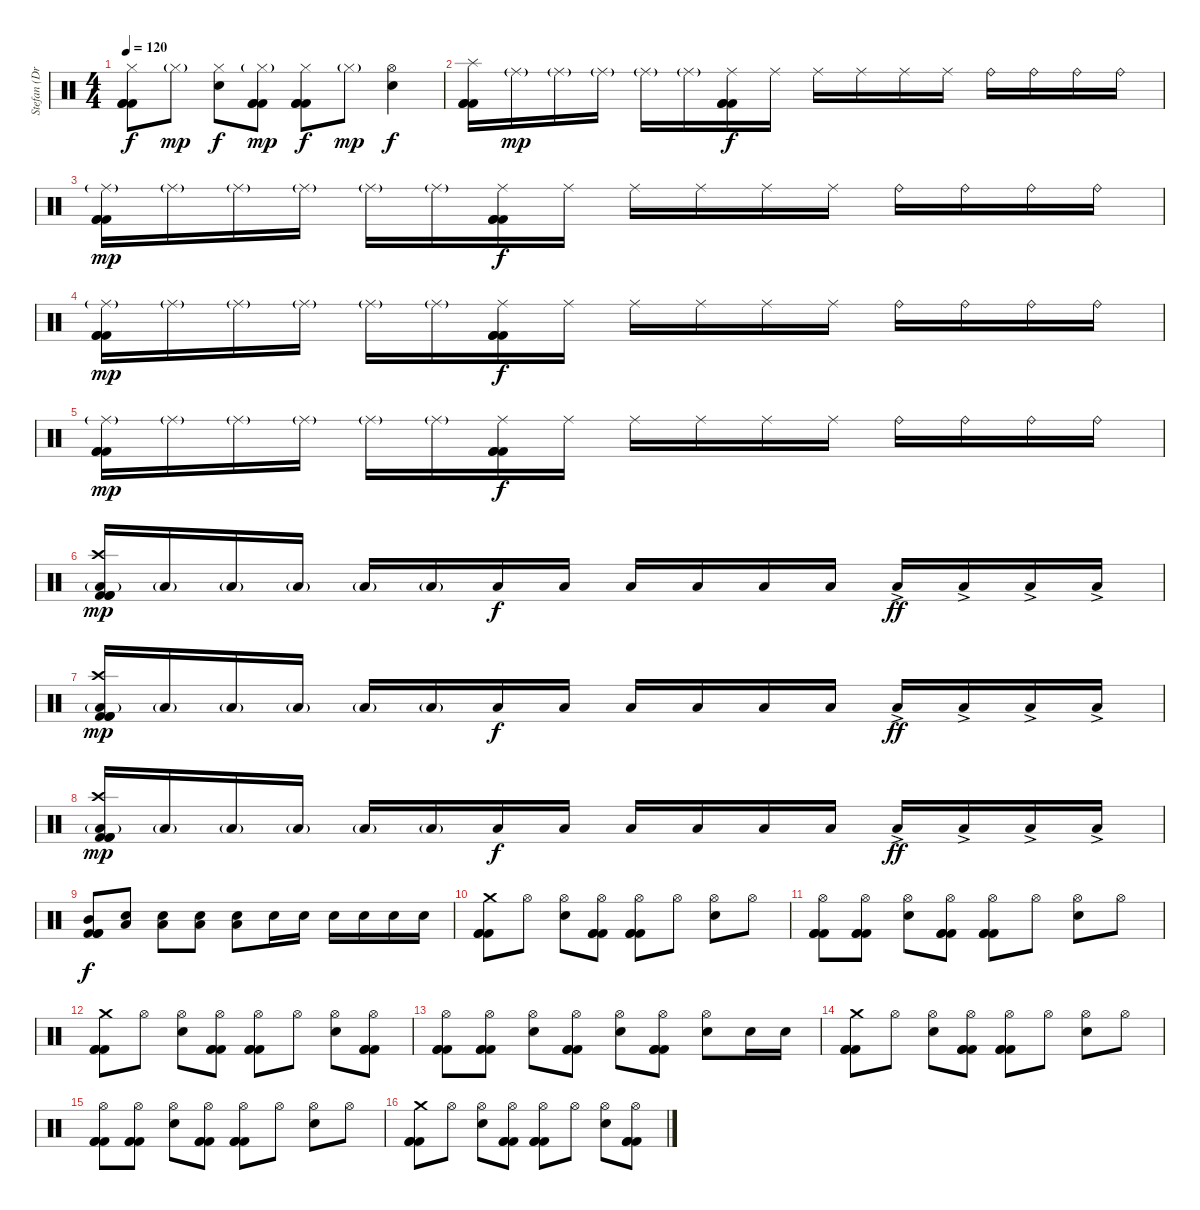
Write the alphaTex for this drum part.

\track ("Stefan (Drums)" "Stefan (Dr") {instrument percussion}
\staff {score}
\articulation defaults
\ts (4 4)
\tempo 120
\clef neutral
\ks c
("Hi-Hat (closed)" "Kick (hit) 2" "Kick (hit) 2" "Kick (hit) 2").8{dy f} "Hi-Hat (closed)"{g}.8{dy mp} ("Hi-Hat (closed)" "Snare (hit) 2").8{dy f} ("Hi-Hat (closed)"{g} "Kick (hit) 2" "Kick (hit) 2" "Kick (hit) 2").8{dy mp} ("Hi-Hat (closed)" "Kick (hit) 2" "Kick (hit) 2" "Kick (hit) 2").8{dy f} "Hi-Hat (closed)"{g}.8{dy mp} ("Hi-Hat (open)" "Snare (hit) 2").4{dy f} |
("Splash (hit)" "Kick (hit) 2" "Kick (hit) 2" "Kick (hit) 2").16 "Ride (middle)"{g}.16{dy mp} "Ride (middle)"{g}.16 "Ride (middle)"{g}.16 "Ride (middle)"{g}.16 "Ride (middle)"{g}.16 ("Ride (middle)" "Kick (hit) 2" "Kick (hit) 2" "Kick (hit) 2").16{dy f} "Ride (middle)".16 "Ride (middle)".16 "Ride (middle)".16 "Ride (middle)".16 "Ride (middle)".16 "Ride (bell)".16 "Ride (bell)".16 "Ride (bell)".16 "Ride (bell)".16 |
("Ride (middle)"{g} "Kick (hit) 2" "Kick (hit) 2" "Kick (hit) 2").16{dy mp} "Ride (middle)"{g}.16 "Ride (middle)"{g}.16 "Ride (middle)"{g}.16 "Ride (middle)"{g}.16 "Ride (middle)"{g}.16 ("Ride (middle)" "Kick (hit) 2" "Kick (hit) 2" "Kick (hit) 2").16{dy f} "Ride (middle)".16 "Ride (middle)".16 "Ride (middle)".16 "Ride (middle)".16 "Ride (middle)".16 "Ride (bell)".16 "Ride (bell)".16 "Ride (bell)".16 "Ride (bell)".16 |
("Ride (middle)"{g} "Kick (hit) 2" "Kick (hit) 2" "Kick (hit) 2").16{dy mp} "Ride (middle)"{g}.16 "Ride (middle)"{g}.16 "Ride (middle)"{g}.16 "Ride (middle)"{g}.16 "Ride (middle)"{g}.16 ("Ride (middle)" "Kick (hit) 2" "Kick (hit) 2" "Kick (hit) 2").16{dy f} "Ride (middle)".16 "Ride (middle)".16 "Ride (middle)".16 "Ride (middle)".16 "Ride (middle)".16 "Ride (bell)".16 "Ride (bell)".16 "Ride (bell)".16 "Ride (bell)".16 |
("Ride (middle)"{g} "Kick (hit) 2" "Kick (hit) 2" "Kick (hit) 2").16{dy mp} "Ride (middle)"{g}.16 "Ride (middle)"{g}.16 "Ride (middle)"{g}.16 "Ride (middle)"{g}.16 "Ride (middle)"{g}.16 ("Ride (middle)" "Kick (hit) 2" "Kick (hit) 2" "Kick (hit) 2").16{dy f} "Ride (middle)".16 "Ride (middle)".16 "Ride (middle)".16 "Ride (middle)".16 "Ride (middle)".16 "Ride (bell)".16 "Ride (bell)".16 "Ride (bell)".16 "Ride (bell)".16 |
("Crash high (hit)" "Low Tom (hit)"{g} "Kick (hit) 2" "Kick (hit) 2" "Kick (hit) 2").16{dy mp} "Low Tom (hit)"{g}.16 "Low Tom (hit)"{g}.16 "Low Tom (hit)"{g}.16 "Low Tom (hit)"{g}.16 "Low Tom (hit)"{g}.16 "Low Tom (hit)".16{dy f} "Low Tom (hit)".16 "Low Tom (hit)".16 "Low Tom (hit)".16 "Low Tom (hit)".16 "Low Tom (hit)".16 "Low Tom (hit)"{ac}.16{dy ff} "Low Tom (hit)"{ac}.16 "Low Tom (hit)"{ac}.16 "Low Tom (hit)"{ac}.16 |
("Crash high (hit)" "Low Tom (hit)"{g} "Kick (hit) 2" "Kick (hit) 2" "Kick (hit) 2").16{dy mp} "Low Tom (hit)"{g}.16 "Low Tom (hit)"{g}.16 "Low Tom (hit)"{g}.16 "Low Tom (hit)"{g}.16 "Low Tom (hit)"{g}.16 "Low Tom (hit)".16{dy f} "Low Tom (hit)".16 "Low Tom (hit)".16 "Low Tom (hit)".16 "Low Tom (hit)".16 "Low Tom (hit)".16 "Low Tom (hit)"{ac}.16{dy ff} "Low Tom (hit)"{ac}.16 "Low Tom (hit)"{ac}.16 "Low Tom (hit)"{ac}.16 |
("Crash high (hit)" "Low Tom (hit)"{g} "Kick (hit) 2" "Kick (hit) 2" "Kick (hit) 2").16{dy mp} "Low Tom (hit)"{g}.16 "Low Tom (hit)"{g}.16 "Low Tom (hit)"{g}.16 "Low Tom (hit)"{g}.16 "Low Tom (hit)"{g}.16 "Low Tom (hit)".16{dy f} "Low Tom (hit)".16 "Low Tom (hit)".16 "Low Tom (hit)".16 "Low Tom (hit)".16 "Low Tom (hit)".16 "Low Tom (hit)"{ac}.16{dy ff} "Low Tom (hit)"{ac}.16 "Low Tom (hit)"{ac}.16 "Low Tom (hit)"{ac}.16 |
("Mid Tom (hit)" "Kick (hit) 2" "Kick (hit) 2" "Kick (hit) 2").8{dy f} ("Snare (hit) 2" "Low Tom (hit)").8 ("Snare (hit) 2" "Low Tom (hit)").8 ("Snare (hit) 2" "Low Tom (hit)").8 ("Snare (hit) 2" "Low Tom (hit)").8 "Snare (hit) 2".16 "Snare (hit) 2".16 "Snare (hit) 2".16 "Snare (hit) 2".16 "Snare (hit) 2".16 "Snare (hit) 2".16 |
("Crash medium (hit)" "Kick (hit) 2" "Kick (hit) 2" "Kick (hit) 2").8 "Hi-Hat (open)".8 ("Hi-Hat (open)" "Snare (hit) 2").8 ("Hi-Hat (open)" "Kick (hit) 2" "Kick (hit) 2" "Kick (hit) 2").8 ("Hi-Hat (open)" "Kick (hit) 2" "Kick (hit) 2" "Kick (hit) 2").8 "Hi-Hat (open)".8 ("Hi-Hat (open)" "Snare (hit) 2").8 "Hi-Hat (open)".8 |
("Hi-Hat (open)" "Kick (hit) 2" "Kick (hit) 2" "Kick (hit) 2").8 ("Hi-Hat (open)" "Kick (hit) 2" "Kick (hit) 2" "Kick (hit) 2").8 ("Hi-Hat (open)" "Snare (hit) 2").8 ("Hi-Hat (open)" "Kick (hit) 2" "Kick (hit) 2" "Kick (hit) 2").8 ("Hi-Hat (open)" "Kick (hit) 2" "Kick (hit) 2" "Kick (hit) 2").8 "Hi-Hat (open)".8 ("Hi-Hat (open)" "Snare (hit) 2").8 "Hi-Hat (open)".8 |
("Crash medium (hit)" "Kick (hit) 2" "Kick (hit) 2" "Kick (hit) 2").8 "Hi-Hat (open)".8 ("Hi-Hat (open)" "Snare (hit) 2").8 ("Hi-Hat (open)" "Kick (hit) 2" "Kick (hit) 2" "Kick (hit) 2").8 ("Hi-Hat (open)" "Kick (hit) 2" "Kick (hit) 2" "Kick (hit) 2").8 "Hi-Hat (open)".8 ("Hi-Hat (open)" "Snare (hit) 2").8 ("Hi-Hat (open)" "Kick (hit) 2" "Kick (hit) 2" "Kick (hit) 2").8 |
("Hi-Hat (open)" "Kick (hit) 2" "Kick (hit) 2" "Kick (hit) 2").8 ("Hi-Hat (open)" "Kick (hit) 2" "Kick (hit) 2" "Kick (hit) 2").8 ("Hi-Hat (open)" "Snare (hit) 2").8 ("Hi-Hat (open)" "Kick (hit) 2" "Kick (hit) 2" "Kick (hit) 2").8 ("Hi-Hat (open)" "Snare (hit) 2").8 ("Hi-Hat (open)" "Kick (hit) 2" "Kick (hit) 2" "Kick (hit) 2").8 ("Hi-Hat (open)" "Snare (hit) 2").8 "Snare (hit) 2".16 "Snare (hit) 2".16 |
("Crash medium (hit)" "Kick (hit) 2" "Kick (hit) 2" "Kick (hit) 2").8 "Hi-Hat (open)".8 ("Hi-Hat (open)" "Snare (hit) 2").8 ("Hi-Hat (open)" "Kick (hit) 2" "Kick (hit) 2" "Kick (hit) 2").8 ("Hi-Hat (open)" "Kick (hit) 2" "Kick (hit) 2" "Kick (hit) 2").8 "Hi-Hat (open)".8 ("Hi-Hat (open)" "Snare (hit) 2").8 "Hi-Hat (open)".8 |
("Hi-Hat (open)" "Kick (hit) 2" "Kick (hit) 2" "Kick (hit) 2").8 ("Hi-Hat (open)" "Kick (hit) 2" "Kick (hit) 2" "Kick (hit) 2").8 ("Hi-Hat (open)" "Snare (hit) 2").8 ("Hi-Hat (open)" "Kick (hit) 2" "Kick (hit) 2" "Kick (hit) 2").8 ("Hi-Hat (open)" "Kick (hit) 2" "Kick (hit) 2" "Kick (hit) 2").8 "Hi-Hat (open)".8 ("Hi-Hat (open)" "Snare (hit) 2").8 "Hi-Hat (open)".8 |
("Crash medium (hit)" "Kick (hit) 2" "Kick (hit) 2" "Kick (hit) 2").8 "Hi-Hat (open)".8 ("Hi-Hat (open)" "Snare (hit) 2").8 ("Hi-Hat (open)" "Kick (hit) 2" "Kick (hit) 2" "Kick (hit) 2").8 ("Hi-Hat (open)" "Kick (hit) 2" "Kick (hit) 2" "Kick (hit) 2").8 "Hi-Hat (open)".8 ("Hi-Hat (open)" "Snare (hit) 2").8 ("Hi-Hat (open)" "Kick (hit) 2" "Kick (hit) 2" "Kick (hit) 2").8
